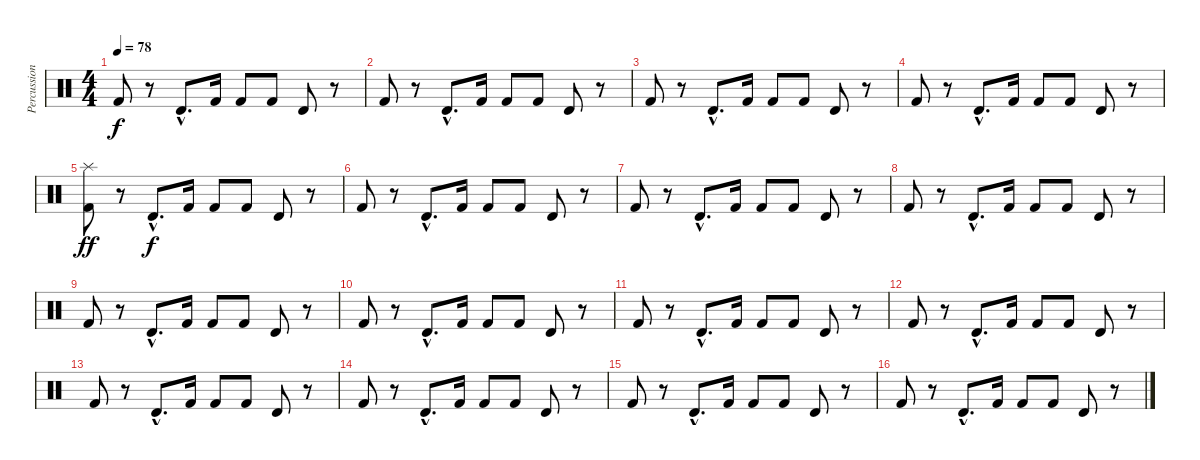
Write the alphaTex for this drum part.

\track ("Percussion" "Percussion") {instrument percussion}
\staff {score}
\articulation defaults
\ts (4 4)
\tempo 78
\clef neutral
\ks c "Kick (hit) 2".8{dy f}
r.8 "Timbale high (hit)"{hac}.8{d} "Kick (hit) 2".16 "Kick (hit) 2".8 "Kick (hit) 2".8 "Timbale high (hit)".8 r.8 |
"Kick (hit) 2".8 r.8 "Timbale high (hit)"{hac}.8{d} "Kick (hit) 2".16 "Kick (hit) 2".8 "Kick (hit) 2".8 "Timbale high (hit)".8 r.8 |
"Kick (hit) 2".8 r.8 "Timbale high (hit)"{hac}.8{d} "Kick (hit) 2".16 "Kick (hit) 2".8 "Kick (hit) 2".8 "Timbale high (hit)".8 r.8 |
"Kick (hit) 2".8 r.8 "Timbale high (hit)"{hac}.8{d} "Kick (hit) 2".16 "Kick (hit) 2".8 "Kick (hit) 2".8 "Timbale high (hit)".8 r.8 |
("Splash (hit)" "Kick (hit) 2").8{dy ff} r.8 "Timbale high (hit)"{hac}.8{d dy f} "Kick (hit) 2".16 "Kick (hit) 2".8 "Kick (hit) 2".8 "Timbale high (hit)".8 r.8 |
"Kick (hit) 2".8 r.8 "Timbale high (hit)"{hac}.8{d} "Kick (hit) 2".16 "Kick (hit) 2".8 "Kick (hit) 2".8 "Timbale high (hit)".8 r.8 |
"Kick (hit) 2".8 r.8 "Timbale high (hit)"{hac}.8{d} "Kick (hit) 2".16 "Kick (hit) 2".8 "Kick (hit) 2".8 "Timbale high (hit)".8 r.8 |
"Kick (hit) 2".8 r.8 "Timbale high (hit)"{hac}.8{d} "Kick (hit) 2".16 "Kick (hit) 2".8 "Kick (hit) 2".8 "Timbale high (hit)".8 r.8 |
"Kick (hit) 2".8 r.8 "Timbale high (hit)"{hac}.8{d} "Kick (hit) 2".16 "Kick (hit) 2".8 "Kick (hit) 2".8 "Timbale high (hit)".8 r.8 |
"Kick (hit) 2".8 r.8 "Timbale high (hit)"{hac}.8{d} "Kick (hit) 2".16 "Kick (hit) 2".8 "Kick (hit) 2".8 "Timbale high (hit)".8 r.8 |
"Kick (hit) 2".8 r.8 "Timbale high (hit)"{hac}.8{d} "Kick (hit) 2".16 "Kick (hit) 2".8 "Kick (hit) 2".8 "Timbale high (hit)".8 r.8 |
"Kick (hit) 2".8 r.8 "Timbale high (hit)"{hac}.8{d} "Kick (hit) 2".16 "Kick (hit) 2".8 "Kick (hit) 2".8 "Timbale high (hit)".8 r.8 |
"Kick (hit) 2".8 r.8 "Timbale high (hit)"{hac}.8{d} "Kick (hit) 2".16 "Kick (hit) 2".8 "Kick (hit) 2".8 "Timbale high (hit)".8 r.8 |
"Kick (hit) 2".8 r.8 "Timbale high (hit)"{hac}.8{d} "Kick (hit) 2".16 "Kick (hit) 2".8 "Kick (hit) 2".8 "Timbale high (hit)".8 r.8 |
"Kick (hit) 2".8 r.8 "Timbale high (hit)"{hac}.8{d} "Kick (hit) 2".16 "Kick (hit) 2".8 "Kick (hit) 2".8 "Timbale high (hit)".8 r.8 |
"Kick (hit) 2".8 r.8 "Timbale high (hit)"{hac}.8{d} "Kick (hit) 2".16 "Kick (hit) 2".8 "Kick (hit) 2".8 "Timbale high (hit)".8 r.8
